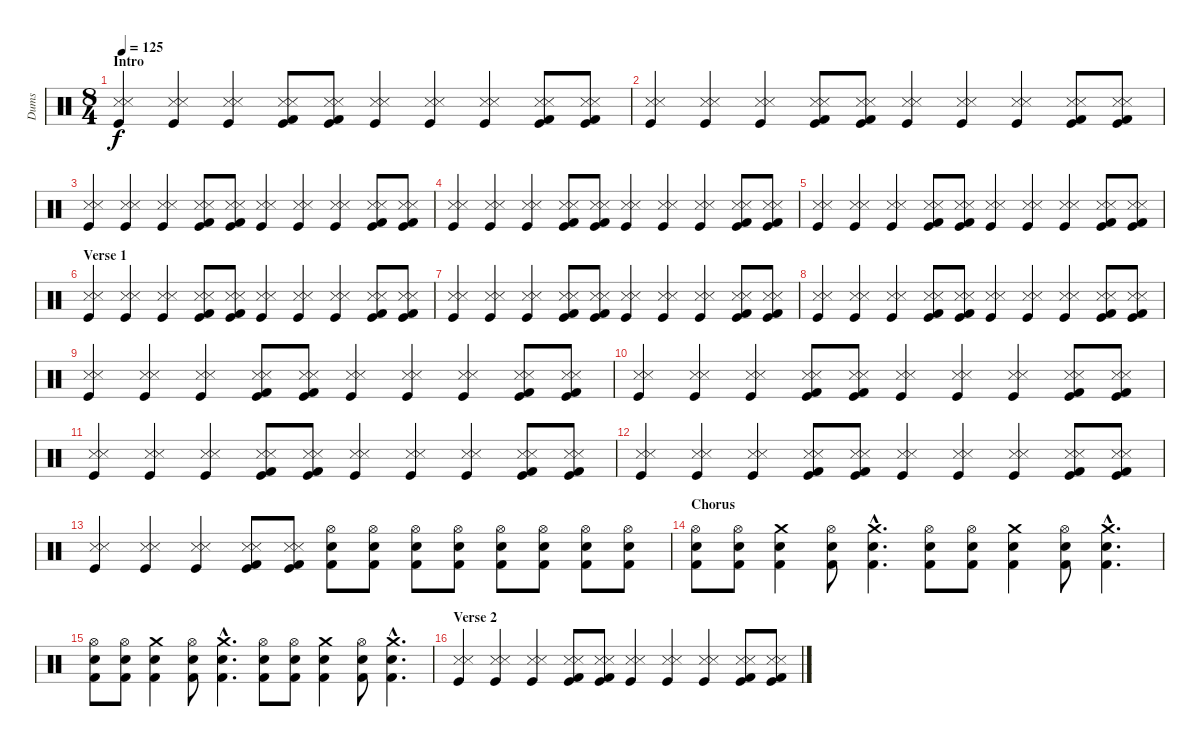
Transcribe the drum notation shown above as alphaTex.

\track ("Dums" "Dums") {instrument percussion}
\staff {score}
\articulation defaults
\ts (8 4)
\section ("" "Intro")
\tempo 125
\clef neutral
\ks c
("Snare (side stick) 3" "Metronome (hit)" "Kick (hit)").4{dy f} ("Snare (side stick) 3" "Metronome (hit)" "Kick (hit)").4 ("Snare (side stick) 3" "Metronome (hit)" "Kick (hit)").4 ("Snare (side stick) 3" "Metronome (hit)" "Kick (hit)" "Kick (hit) 2").8 ("Snare (side stick) 3" "Metronome (hit)" "Kick (hit)" "Kick (hit) 2").8 ("Snare (side stick) 3" "Metronome (hit)" "Kick (hit)").4 ("Snare (side stick) 3" "Metronome (hit)" "Kick (hit)").4 ("Snare (side stick) 3" "Metronome (hit)" "Kick (hit)").4 ("Snare (side stick) 3" "Metronome (hit)" "Kick (hit)" "Kick (hit) 2").8 ("Snare (side stick) 3" "Metronome (hit)" "Kick (hit)" "Kick (hit) 2").8 |
("Snare (side stick) 3" "Metronome (hit)" "Kick (hit)").4 ("Snare (side stick) 3" "Metronome (hit)" "Kick (hit)").4 ("Snare (side stick) 3" "Metronome (hit)" "Kick (hit)").4 ("Snare (side stick) 3" "Metronome (hit)" "Kick (hit)" "Kick (hit) 2").8 ("Snare (side stick) 3" "Metronome (hit)" "Kick (hit)" "Kick (hit) 2").8 ("Snare (side stick) 3" "Metronome (hit)" "Kick (hit)").4 ("Snare (side stick) 3" "Metronome (hit)" "Kick (hit)").4 ("Snare (side stick) 3" "Metronome (hit)" "Kick (hit)").4 ("Snare (side stick) 3" "Metronome (hit)" "Kick (hit)" "Kick (hit) 2").8 ("Snare (side stick) 3" "Metronome (hit)" "Kick (hit)" "Kick (hit) 2").8 |
("Snare (side stick) 3" "Metronome (hit)" "Kick (hit)").4 ("Snare (side stick) 3" "Metronome (hit)" "Kick (hit)").4 ("Snare (side stick) 3" "Metronome (hit)" "Kick (hit)").4 ("Snare (side stick) 3" "Metronome (hit)" "Kick (hit)" "Kick (hit) 2").8 ("Snare (side stick) 3" "Metronome (hit)" "Kick (hit)" "Kick (hit) 2").8 ("Snare (side stick) 3" "Metronome (hit)" "Kick (hit)").4 ("Snare (side stick) 3" "Metronome (hit)" "Kick (hit)").4 ("Snare (side stick) 3" "Metronome (hit)" "Kick (hit)").4 ("Snare (side stick) 3" "Metronome (hit)" "Kick (hit)" "Kick (hit) 2").8 ("Snare (side stick) 3" "Metronome (hit)" "Kick (hit)" "Kick (hit) 2").8 |
("Snare (side stick) 3" "Metronome (hit)" "Kick (hit)").4 ("Snare (side stick) 3" "Metronome (hit)" "Kick (hit)").4 ("Snare (side stick) 3" "Metronome (hit)" "Kick (hit)").4 ("Snare (side stick) 3" "Metronome (hit)" "Kick (hit)" "Kick (hit) 2").8 ("Snare (side stick) 3" "Metronome (hit)" "Kick (hit)" "Kick (hit) 2").8 ("Snare (side stick) 3" "Metronome (hit)" "Kick (hit)").4 ("Snare (side stick) 3" "Metronome (hit)" "Kick (hit)").4 ("Snare (side stick) 3" "Metronome (hit)" "Kick (hit)").4 ("Snare (side stick) 3" "Metronome (hit)" "Kick (hit)" "Kick (hit) 2").8 ("Snare (side stick) 3" "Metronome (hit)" "Kick (hit)" "Kick (hit) 2").8 |
("Snare (side stick) 3" "Metronome (hit)" "Kick (hit)").4 ("Snare (side stick) 3" "Metronome (hit)" "Kick (hit)").4 ("Snare (side stick) 3" "Metronome (hit)" "Kick (hit)").4 ("Snare (side stick) 3" "Metronome (hit)" "Kick (hit)" "Kick (hit) 2").8 ("Snare (side stick) 3" "Metronome (hit)" "Kick (hit)" "Kick (hit) 2").8 ("Snare (side stick) 3" "Metronome (hit)" "Kick (hit)").4 ("Snare (side stick) 3" "Metronome (hit)" "Kick (hit)").4 ("Snare (side stick) 3" "Metronome (hit)" "Kick (hit)").4 ("Snare (side stick) 3" "Metronome (hit)" "Kick (hit)" "Kick (hit) 2").8 ("Snare (side stick) 3" "Metronome (hit)" "Kick (hit)" "Kick (hit) 2").8 |
\section ("" "Verse 1")
("Snare (side stick) 3" "Metronome (hit)" "Kick (hit)").4 ("Snare (side stick) 3" "Metronome (hit)" "Kick (hit)").4 ("Snare (side stick) 3" "Metronome (hit)" "Kick (hit)").4 ("Snare (side stick) 3" "Metronome (hit)" "Kick (hit)" "Kick (hit) 2").8 ("Snare (side stick) 3" "Metronome (hit)" "Kick (hit)" "Kick (hit) 2").8 ("Snare (side stick) 3" "Metronome (hit)" "Kick (hit)").4 ("Snare (side stick) 3" "Metronome (hit)" "Kick (hit)").4 ("Snare (side stick) 3" "Metronome (hit)" "Kick (hit)").4 ("Snare (side stick) 3" "Metronome (hit)" "Kick (hit)" "Kick (hit) 2").8 ("Snare (side stick) 3" "Metronome (hit)" "Kick (hit)" "Kick (hit) 2").8 |
("Snare (side stick) 3" "Metronome (hit)" "Kick (hit)").4 ("Snare (side stick) 3" "Metronome (hit)" "Kick (hit)").4 ("Snare (side stick) 3" "Metronome (hit)" "Kick (hit)").4 ("Snare (side stick) 3" "Metronome (hit)" "Kick (hit)" "Kick (hit) 2").8 ("Snare (side stick) 3" "Metronome (hit)" "Kick (hit)" "Kick (hit) 2").8 ("Snare (side stick) 3" "Metronome (hit)" "Kick (hit)").4 ("Snare (side stick) 3" "Metronome (hit)" "Kick (hit)").4 ("Snare (side stick) 3" "Metronome (hit)" "Kick (hit)").4 ("Snare (side stick) 3" "Metronome (hit)" "Kick (hit)" "Kick (hit) 2").8 ("Snare (side stick) 3" "Metronome (hit)" "Kick (hit)" "Kick (hit) 2").8 |
("Snare (side stick) 3" "Metronome (hit)" "Kick (hit)").4 ("Snare (side stick) 3" "Metronome (hit)" "Kick (hit)").4 ("Snare (side stick) 3" "Metronome (hit)" "Kick (hit)").4 ("Snare (side stick) 3" "Metronome (hit)" "Kick (hit)" "Kick (hit) 2").8 ("Snare (side stick) 3" "Metronome (hit)" "Kick (hit)" "Kick (hit) 2").8 ("Snare (side stick) 3" "Metronome (hit)" "Kick (hit)").4 ("Snare (side stick) 3" "Metronome (hit)" "Kick (hit)").4 ("Snare (side stick) 3" "Metronome (hit)" "Kick (hit)").4 ("Snare (side stick) 3" "Metronome (hit)" "Kick (hit)" "Kick (hit) 2").8 ("Snare (side stick) 3" "Metronome (hit)" "Kick (hit)" "Kick (hit) 2").8 |
("Snare (side stick) 3" "Metronome (hit)" "Kick (hit)").4 ("Snare (side stick) 3" "Metronome (hit)" "Kick (hit)").4 ("Snare (side stick) 3" "Metronome (hit)" "Kick (hit)").4 ("Snare (side stick) 3" "Metronome (hit)" "Kick (hit)" "Kick (hit) 2").8 ("Snare (side stick) 3" "Metronome (hit)" "Kick (hit)" "Kick (hit) 2").8 ("Snare (side stick) 3" "Metronome (hit)" "Kick (hit)").4 ("Snare (side stick) 3" "Metronome (hit)" "Kick (hit)").4 ("Snare (side stick) 3" "Metronome (hit)" "Kick (hit)").4 ("Snare (side stick) 3" "Metronome (hit)" "Kick (hit)" "Kick (hit) 2").8 ("Snare (side stick) 3" "Metronome (hit)" "Kick (hit)" "Kick (hit) 2").8 |
("Snare (side stick) 3" "Metronome (hit)" "Kick (hit)").4 ("Snare (side stick) 3" "Metronome (hit)" "Kick (hit)").4 ("Snare (side stick) 3" "Metronome (hit)" "Kick (hit)").4 ("Snare (side stick) 3" "Metronome (hit)" "Kick (hit)" "Kick (hit) 2").8 ("Snare (side stick) 3" "Metronome (hit)" "Kick (hit)" "Kick (hit) 2").8 ("Snare (side stick) 3" "Metronome (hit)" "Kick (hit)").4 ("Snare (side stick) 3" "Metronome (hit)" "Kick (hit)").4 ("Snare (side stick) 3" "Metronome (hit)" "Kick (hit)").4 ("Snare (side stick) 3" "Metronome (hit)" "Kick (hit)" "Kick (hit) 2").8 ("Snare (side stick) 3" "Metronome (hit)" "Kick (hit)" "Kick (hit) 2").8 |
("Snare (side stick) 3" "Metronome (hit)" "Kick (hit)").4 ("Snare (side stick) 3" "Metronome (hit)" "Kick (hit)").4 ("Snare (side stick) 3" "Metronome (hit)" "Kick (hit)").4 ("Snare (side stick) 3" "Metronome (hit)" "Kick (hit)" "Kick (hit) 2").8 ("Snare (side stick) 3" "Metronome (hit)" "Kick (hit)" "Kick (hit) 2").8 ("Snare (side stick) 3" "Metronome (hit)" "Kick (hit)").4 ("Snare (side stick) 3" "Metronome (hit)" "Kick (hit)").4 ("Snare (side stick) 3" "Metronome (hit)" "Kick (hit)").4 ("Snare (side stick) 3" "Metronome (hit)" "Kick (hit)" "Kick (hit) 2").8 ("Snare (side stick) 3" "Metronome (hit)" "Kick (hit)" "Kick (hit) 2").8 |
("Snare (side stick) 3" "Metronome (hit)" "Kick (hit)").4 ("Snare (side stick) 3" "Metronome (hit)" "Kick (hit)").4 ("Snare (side stick) 3" "Metronome (hit)" "Kick (hit)").4 ("Snare (side stick) 3" "Metronome (hit)" "Kick (hit)" "Kick (hit) 2").8 ("Snare (side stick) 3" "Metronome (hit)" "Kick (hit)" "Kick (hit) 2").8 ("Snare (side stick) 3" "Metronome (hit)" "Kick (hit)").4 ("Snare (side stick) 3" "Metronome (hit)" "Kick (hit)").4 ("Snare (side stick) 3" "Metronome (hit)" "Kick (hit)").4 ("Snare (side stick) 3" "Metronome (hit)" "Kick (hit)" "Kick (hit) 2").8 ("Snare (side stick) 3" "Metronome (hit)" "Kick (hit)" "Kick (hit) 2").8 |
("Snare (side stick) 3" "Metronome (hit)" "Kick (hit)").4 ("Snare (side stick) 3" "Metronome (hit)" "Kick (hit)").4 ("Snare (side stick) 3" "Metronome (hit)" "Kick (hit)").4 ("Snare (side stick) 3" "Metronome (hit)" "Kick (hit)" "Kick (hit) 2").8 ("Snare (side stick) 3" "Metronome (hit)" "Kick (hit)" "Kick (hit) 2").8 ("Kick (hit) 2" "Electric Snare (hit)" "Hi-Hat (open)").8 ("Kick (hit) 2" "Electric Snare (hit)" "Hi-Hat (open)").8 ("Kick (hit) 2" "Electric Snare (hit)" "Hi-Hat (open)").8 ("Kick (hit) 2" "Electric Snare (hit)" "Hi-Hat (open)").8 ("Kick (hit) 2" "Electric Snare (hit)" "Hi-Hat (open)").8 ("Kick (hit) 2" "Electric Snare (hit)" "Hi-Hat (open)").8 ("Kick (hit) 2" "Electric Snare (hit)" "Hi-Hat (open)").8 ("Kick (hit) 2" "Electric Snare (hit)" "Hi-Hat (open)").8 |
\section ("" "Chorus")
("Kick (hit) 2" "Electric Snare (hit)" "Hi-Hat (open)").8 ("Kick (hit) 2" "Electric Snare (hit)" "Hi-Hat (open)").8 ("Kick (hit) 2" "Electric Snare (hit)" "Crash medium (hit)").4 ("Kick (hit) 2" "Electric Snare (hit)" "Hi-Hat (open)").8 ("Kick (hit) 2"{hac} "Electric Snare (hit)"{hac} "Crash medium (hit)"{hac}).4{d} ("Kick (hit) 2" "Electric Snare (hit)" "Hi-Hat (open)").8 ("Kick (hit) 2" "Electric Snare (hit)" "Hi-Hat (open)").8 ("Kick (hit) 2" "Electric Snare (hit)" "Crash medium (hit)").4 ("Kick (hit) 2" "Electric Snare (hit)" "Hi-Hat (open)").8 ("Kick (hit) 2"{hac} "Electric Snare (hit)"{hac} "Crash medium (hit)"{hac}).4{d} |
("Kick (hit) 2" "Electric Snare (hit)" "Hi-Hat (open)").8 ("Kick (hit) 2" "Electric Snare (hit)" "Hi-Hat (open)").8 ("Kick (hit) 2" "Electric Snare (hit)" "Crash medium (hit)").4 ("Kick (hit) 2" "Electric Snare (hit)" "Hi-Hat (open)").8 ("Kick (hit) 2"{hac} "Electric Snare (hit)"{hac} "Crash medium (hit)"{hac}).4{d} ("Kick (hit) 2" "Electric Snare (hit)" "Hi-Hat (open)").8 ("Kick (hit) 2" "Electric Snare (hit)" "Hi-Hat (open)").8 ("Kick (hit) 2" "Electric Snare (hit)" "Crash medium (hit)").4 ("Kick (hit) 2" "Electric Snare (hit)" "Hi-Hat (open)").8 ("Kick (hit) 2"{hac} "Electric Snare (hit)"{hac} "Crash medium (hit)"{hac}).4{d} |
\section ("" "Verse 2")
("Snare (side stick) 3" "Metronome (hit)" "Kick (hit)").4 ("Snare (side stick) 3" "Metronome (hit)" "Kick (hit)").4 ("Snare (side stick) 3" "Metronome (hit)" "Kick (hit)").4 ("Snare (side stick) 3" "Metronome (hit)" "Kick (hit)" "Kick (hit) 2").8 ("Snare (side stick) 3" "Metronome (hit)" "Kick (hit)" "Kick (hit) 2").8 ("Snare (side stick) 3" "Metronome (hit)" "Kick (hit)").4 ("Snare (side stick) 3" "Metronome (hit)" "Kick (hit)").4 ("Snare (side stick) 3" "Metronome (hit)" "Kick (hit)").4 ("Snare (side stick) 3" "Metronome (hit)" "Kick (hit)" "Kick (hit) 2").8 ("Snare (side stick) 3" "Metronome (hit)" "Kick (hit)" "Kick (hit) 2").8
